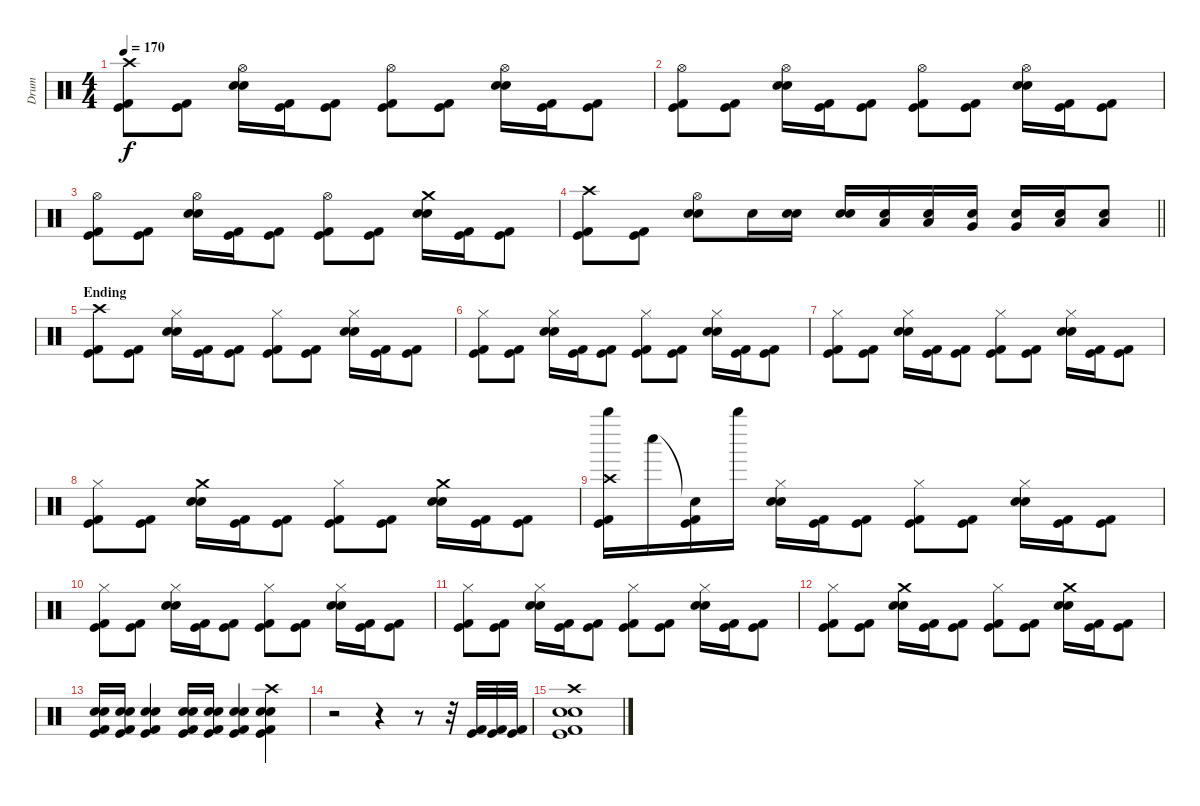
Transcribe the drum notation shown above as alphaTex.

\track ("Drum" "Drum") {instrument percussion}
\staff
\articulation defaults
\ts (4 4)
\tempo 170
\clef neutral
\ks c
("Crash high (hit)" "Kick (hit) 2" "Kick (hit)").8{dy f} ("Kick (hit) 2" "Kick (hit)").8 ("Hi-Hat (open)" "Electric Snare (hit)" "Snare (hit) 2").16 ("Kick (hit) 2" "Kick (hit)").16 ("Kick (hit) 2" "Kick (hit)").8 ("Hi-Hat (open)" "Kick (hit) 2" "Kick (hit)").8 ("Kick (hit) 2" "Kick (hit)").8 ("Hi-Hat (open)" "Electric Snare (hit)" "Snare (hit) 2").16 ("Kick (hit) 2" "Kick (hit)").16 ("Kick (hit) 2" "Kick (hit)").8 |
("Hi-Hat (open)" "Kick (hit) 2" "Kick (hit)").8 ("Kick (hit) 2" "Kick (hit)").8 ("Hi-Hat (open)" "Electric Snare (hit)" "Snare (hit) 2").16 ("Kick (hit) 2" "Kick (hit)").16 ("Kick (hit) 2" "Kick (hit)").8 ("Hi-Hat (open)" "Kick (hit) 2" "Kick (hit)").8 ("Kick (hit) 2" "Kick (hit)").8 ("Hi-Hat (open)" "Electric Snare (hit)" "Snare (hit) 2").16 ("Kick (hit) 2" "Kick (hit)").16 ("Kick (hit) 2" "Kick (hit)").8 |
("Hi-Hat (open)" "Kick (hit) 2" "Kick (hit)").8 ("Kick (hit) 2" "Kick (hit)").8 ("Hi-Hat (open)" "Electric Snare (hit)" "Snare (hit) 2").16 ("Kick (hit) 2" "Kick (hit)").16 ("Kick (hit) 2" "Kick (hit)").8 ("Hi-Hat (open)" "Kick (hit) 2" "Kick (hit)").8 ("Kick (hit) 2" "Kick (hit)").8 ("Crash medium (hit)" "Electric Snare (hit)" "Snare (hit) 2").16 ("Kick (hit) 2" "Kick (hit)").16 ("Kick (hit) 2" "Kick (hit)").8 |
\barLineRight lightlight
("Crash high (hit)" "Kick (hit) 2" "Kick (hit)").8 ("Kick (hit) 2" "Kick (hit)").8 ("Hi-Hat (open)" "Electric Snare (hit)" "Snare (hit) 2").8 "Electric Snare (hit)".16 ("Electric Snare (hit)" "Snare (hit) 2").16 ("Electric Snare (hit)" "Snare (hit) 2").16 ("Electric Snare (hit)" "Low Floor Tom (hit)").16 ("Electric Snare (hit)" "Low Floor Tom (hit)").16 ("Electric Snare (hit)" "Very Low Tom (hit)").16 ("Electric Snare (hit)" "Very Low Tom (hit)").16 ("Electric Snare (hit)" "Low Floor Tom (hit)").16 ("Electric Snare (hit)" "Low Floor Tom (hit)").8 |
\section ("" "Ending")
("Crash high (hit)" "Kick (hit) 2" "Kick (hit)").8 ("Kick (hit) 2" "Kick (hit)").8 ("Hi-Hat (closed)" "Electric Snare (hit)" "Snare (hit) 2").16 ("Kick (hit) 2" "Kick (hit)").16 ("Kick (hit) 2" "Kick (hit)").8 ("Hi-Hat (closed)" "Kick (hit) 2" "Kick (hit)").8 ("Kick (hit) 2" "Kick (hit)").8 ("Hi-Hat (closed)" "Electric Snare (hit)" "Snare (hit) 2").16 ("Kick (hit) 2" "Kick (hit)").16 ("Kick (hit) 2" "Kick (hit)").8 |
("Hi-Hat (closed)" "Kick (hit) 2" "Kick (hit)").8 ("Kick (hit) 2" "Kick (hit)").8 ("Hi-Hat (closed)" "Electric Snare (hit)" "Snare (hit) 2").16 ("Kick (hit) 2" "Kick (hit)").16 ("Kick (hit) 2" "Kick (hit)").8 ("Hi-Hat (closed)" "Kick (hit) 2" "Kick (hit)").8 ("Kick (hit) 2" "Kick (hit)").8 ("Hi-Hat (closed)" "Electric Snare (hit)" "Snare (hit) 2").16 ("Kick (hit) 2" "Kick (hit)").16 ("Kick (hit) 2" "Kick (hit)").8 |
("Hi-Hat (closed)" "Kick (hit) 2" "Kick (hit)").8 ("Kick (hit) 2" "Kick (hit)").8 ("Hi-Hat (closed)" "Electric Snare (hit)" "Snare (hit) 2").16 ("Kick (hit) 2" "Kick (hit)").16 ("Kick (hit) 2" "Kick (hit)").8 ("Hi-Hat (closed)" "Kick (hit) 2" "Kick (hit)").8 ("Kick (hit) 2" "Kick (hit)").8 ("Hi-Hat (closed)" "Electric Snare (hit)" "Snare (hit) 2").16 ("Kick (hit) 2" "Kick (hit)").16 ("Kick (hit) 2" "Kick (hit)").8 |
("Hi-Hat (closed)" "Kick (hit) 2" "Kick (hit)").8 ("Kick (hit) 2" "Kick (hit)").8 ("Crash medium (hit)" "Electric Snare (hit)" "Snare (hit) 2").16 ("Kick (hit) 2" "Kick (hit)").16 ("Kick (hit) 2" "Kick (hit)").8 ("Hi-Hat (closed)" "Kick (hit) 2" "Kick (hit)").8 ("Kick (hit) 2" "Kick (hit)").8 ("Crash medium (hit)" "Electric Snare (hit)" "Snare (hit) 2").16 ("Kick (hit) 2" "Kick (hit)").16 ("Kick (hit) 2" "Kick (hit)").8 |
("Crash high (hit)" "Whistle high (hit)" "Kick (hit) 2" "Kick (hit)").16 "Whistle low (hit)".16 ("Snare (hit)"{t} "Kick (hit) 2" "Kick (hit)").16 "Whistle high (hit)".16 ("Hi-Hat (closed)" "Electric Snare (hit)" "Snare (hit) 2").16 ("Kick (hit) 2" "Kick (hit)").16 ("Kick (hit) 2" "Kick (hit)").8 ("Hi-Hat (closed)" "Kick (hit) 2" "Kick (hit)").8 ("Kick (hit) 2" "Kick (hit)").8 ("Hi-Hat (closed)" "Electric Snare (hit)" "Snare (hit) 2").16 ("Kick (hit) 2" "Kick (hit)").16 ("Kick (hit) 2" "Kick (hit)").8 |
("Hi-Hat (closed)" "Kick (hit) 2" "Kick (hit)").8 ("Kick (hit) 2" "Kick (hit)").8 ("Hi-Hat (closed)" "Electric Snare (hit)" "Snare (hit) 2").16 ("Kick (hit) 2" "Kick (hit)").16 ("Kick (hit) 2" "Kick (hit)").8 ("Hi-Hat (closed)" "Kick (hit) 2" "Kick (hit)").8 ("Kick (hit) 2" "Kick (hit)").8 ("Hi-Hat (closed)" "Electric Snare (hit)" "Snare (hit) 2").16 ("Kick (hit) 2" "Kick (hit)").16 ("Kick (hit) 2" "Kick (hit)").8 |
("Hi-Hat (closed)" "Kick (hit) 2" "Kick (hit)").8 ("Kick (hit) 2" "Kick (hit)").8 ("Hi-Hat (closed)" "Electric Snare (hit)" "Snare (hit) 2").16 ("Kick (hit) 2" "Kick (hit)").16 ("Kick (hit) 2" "Kick (hit)").8 ("Hi-Hat (closed)" "Kick (hit) 2" "Kick (hit)").8 ("Kick (hit) 2" "Kick (hit)").8 ("Hi-Hat (closed)" "Electric Snare (hit)" "Snare (hit) 2").16 ("Kick (hit) 2" "Kick (hit)").16 ("Kick (hit) 2" "Kick (hit)").8 |
("Hi-Hat (closed)" "Kick (hit) 2" "Kick (hit)").8 ("Kick (hit) 2" "Kick (hit)").8 ("Crash medium (hit)" "Electric Snare (hit)" "Snare (hit) 2").16 ("Kick (hit) 2" "Kick (hit)").16 ("Kick (hit) 2" "Kick (hit)").8 ("Hi-Hat (closed)" "Kick (hit) 2" "Kick (hit)").8 ("Kick (hit) 2" "Kick (hit)").8 ("Crash medium (hit)" "Electric Snare (hit)" "Snare (hit) 2").16 ("Kick (hit) 2" "Kick (hit)").16 ("Kick (hit) 2" "Kick (hit)").8 |
("Electric Snare (hit)" "Snare (hit) 2" "Kick (hit) 2" "Kick (hit)").16 ("Electric Snare (hit)" "Snare (hit) 2" "Kick (hit) 2" "Kick (hit)").16 ("Electric Snare (hit)" "Snare (hit) 2" "Kick (hit) 2" "Kick (hit)").4 ("Electric Snare (hit)" "Snare (hit) 2" "Kick (hit) 2" "Kick (hit)").16 ("Electric Snare (hit)" "Snare (hit) 2" "Kick (hit) 2" "Kick (hit)").16 ("Electric Snare (hit)" "Snare (hit) 2" "Kick (hit) 2" "Kick (hit)").4 ("Crash high (hit)" "Electric Snare (hit)" "Snare (hit) 2" "Kick (hit) 2" "Kick (hit)").4 |
r.2 r.4 r.8 r.32 ("Kick (hit) 2" "Kick (hit)").32 ("Kick (hit) 2" "Kick (hit)").32 ("Kick (hit) 2" "Kick (hit)").32 |
("Crash high (hit)" "Electric Snare (hit)" "Snare (hit) 2" "Kick (hit) 2" "Kick (hit)").1
